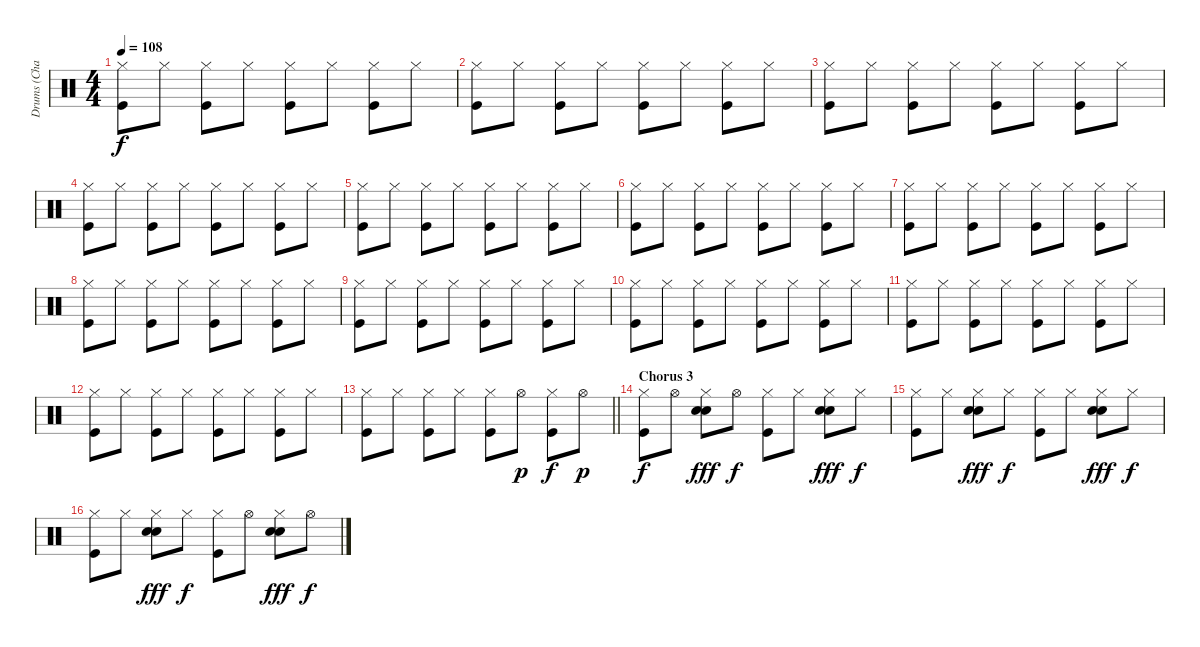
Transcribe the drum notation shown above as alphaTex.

\track ("Drums (Charlie)" "Drums (Cha") {instrument percussion}
\staff {score}
\articulation defaults
\ts (4 4)
\tempo 108
\clef neutral
\ks c
("Hi-Hat (closed)" "Kick (hit)").8{dy f} "Hi-Hat (closed)".8 ("Hi-Hat (closed)" "Kick (hit)").8 "Hi-Hat (closed)".8 ("Hi-Hat (closed)" "Kick (hit)").8 "Hi-Hat (closed)".8 ("Hi-Hat (closed)" "Kick (hit)").8 "Hi-Hat (closed)".8 |
("Hi-Hat (closed)" "Kick (hit)").8 "Hi-Hat (closed)".8 ("Hi-Hat (closed)" "Kick (hit)").8 "Hi-Hat (closed)".8 ("Hi-Hat (closed)" "Kick (hit)").8 "Hi-Hat (closed)".8 ("Hi-Hat (closed)" "Kick (hit)").8 "Hi-Hat (closed)".8 |
("Hi-Hat (closed)" "Kick (hit)").8 "Hi-Hat (closed)".8 ("Hi-Hat (closed)" "Kick (hit)").8 "Hi-Hat (closed)".8 ("Hi-Hat (closed)" "Kick (hit)").8 "Hi-Hat (closed)".8 ("Hi-Hat (closed)" "Kick (hit)").8 "Hi-Hat (closed)".8 |
("Hi-Hat (closed)" "Kick (hit)").8 "Hi-Hat (closed)".8 ("Hi-Hat (closed)" "Kick (hit)").8 "Hi-Hat (closed)".8 ("Hi-Hat (closed)" "Kick (hit)").8 "Hi-Hat (closed)".8 ("Hi-Hat (closed)" "Kick (hit)").8 "Hi-Hat (closed)".8 |
("Hi-Hat (closed)" "Kick (hit)").8 "Hi-Hat (closed)".8 ("Hi-Hat (closed)" "Kick (hit)").8 "Hi-Hat (closed)".8 ("Hi-Hat (closed)" "Kick (hit)").8 "Hi-Hat (closed)".8 ("Hi-Hat (closed)" "Kick (hit)").8 "Hi-Hat (closed)".8 |
("Hi-Hat (closed)" "Kick (hit)").8 "Hi-Hat (closed)".8 ("Hi-Hat (closed)" "Kick (hit)").8 "Hi-Hat (closed)".8 ("Hi-Hat (closed)" "Kick (hit)").8 "Hi-Hat (closed)".8 ("Hi-Hat (closed)" "Kick (hit)").8 "Hi-Hat (closed)".8 |
("Hi-Hat (closed)" "Kick (hit)").8 "Hi-Hat (closed)".8 ("Hi-Hat (closed)" "Kick (hit)").8 "Hi-Hat (closed)".8 ("Hi-Hat (closed)" "Kick (hit)").8 "Hi-Hat (closed)".8 ("Hi-Hat (closed)" "Kick (hit)").8 "Hi-Hat (closed)".8 |
("Hi-Hat (closed)" "Kick (hit)").8 "Hi-Hat (closed)".8 ("Hi-Hat (closed)" "Kick (hit)").8 "Hi-Hat (closed)".8 ("Hi-Hat (closed)" "Kick (hit)").8 "Hi-Hat (closed)".8 ("Hi-Hat (closed)" "Kick (hit)").8 "Hi-Hat (closed)".8 |
("Hi-Hat (closed)" "Kick (hit)").8 "Hi-Hat (closed)".8 ("Hi-Hat (closed)" "Kick (hit)").8 "Hi-Hat (closed)".8 ("Hi-Hat (closed)" "Kick (hit)").8 "Hi-Hat (closed)".8 ("Hi-Hat (closed)" "Kick (hit)").8 "Hi-Hat (closed)".8 |
("Hi-Hat (closed)" "Kick (hit)").8 "Hi-Hat (closed)".8 ("Hi-Hat (closed)" "Kick (hit)").8 "Hi-Hat (closed)".8 ("Hi-Hat (closed)" "Kick (hit)").8 "Hi-Hat (closed)".8 ("Hi-Hat (closed)" "Kick (hit)").8 "Hi-Hat (closed)".8 |
("Hi-Hat (closed)" "Kick (hit)").8 "Hi-Hat (closed)".8 ("Hi-Hat (closed)" "Kick (hit)").8 "Hi-Hat (closed)".8 ("Hi-Hat (closed)" "Kick (hit)").8 "Hi-Hat (closed)".8 ("Hi-Hat (closed)" "Kick (hit)").8 "Hi-Hat (closed)".8 |
("Hi-Hat (closed)" "Kick (hit)").8 "Hi-Hat (closed)".8 ("Hi-Hat (closed)" "Kick (hit)").8 "Hi-Hat (closed)".8 ("Hi-Hat (closed)" "Kick (hit)").8 "Hi-Hat (closed)".8 ("Hi-Hat (closed)" "Kick (hit)").8 "Hi-Hat (closed)".8 |
\barLineRight lightlight
("Hi-Hat (closed)" "Kick (hit)").8 "Hi-Hat (closed)".8 ("Hi-Hat (closed)" "Kick (hit)").8 "Hi-Hat (closed)".8 ("Hi-Hat (closed)" "Kick (hit)").8 "Hi-Hat (open)".8{dy p} ("Hi-Hat (closed)" "Kick (hit)").8{dy f} "Hi-Hat (open)".8{dy p} |
\section ("" "Chorus 3")
("Hi-Hat (closed)" "Kick (hit)").8{dy f} "Hi-Hat (open)".8 ("Hi-Hat (closed)" "Snare (hit) 2" "Electric Snare (hit)").8{dy fff} "Hi-Hat (open)".8{dy f} ("Hi-Hat (closed)" "Kick (hit)").8 "Hi-Hat (closed)".8 ("Hi-Hat (closed)" "Snare (hit) 2" "Electric Snare (hit)").8{dy fff} "Hi-Hat (closed)".8{dy f} |
("Hi-Hat (closed)" "Kick (hit)").8 "Hi-Hat (closed)".8 ("Hi-Hat (closed)" "Snare (hit) 2" "Electric Snare (hit)").8{dy fff} "Hi-Hat (closed)".8{dy f} ("Hi-Hat (closed)" "Kick (hit)").8 "Hi-Hat (closed)".8 ("Hi-Hat (closed)" "Snare (hit) 2" "Electric Snare (hit)").8{dy fff} "Hi-Hat (closed)".8{dy f} |
("Hi-Hat (closed)" "Kick (hit)").8 "Hi-Hat (closed)".8 ("Hi-Hat (closed)" "Snare (hit) 2" "Electric Snare (hit)").8{dy fff} "Hi-Hat (closed)".8{dy f} ("Hi-Hat (closed)" "Kick (hit)").8 "Hi-Hat (open)".8 ("Hi-Hat (closed)" "Snare (hit) 2" "Electric Snare (hit)").8{dy fff} "Hi-Hat (open)".8{dy f}
